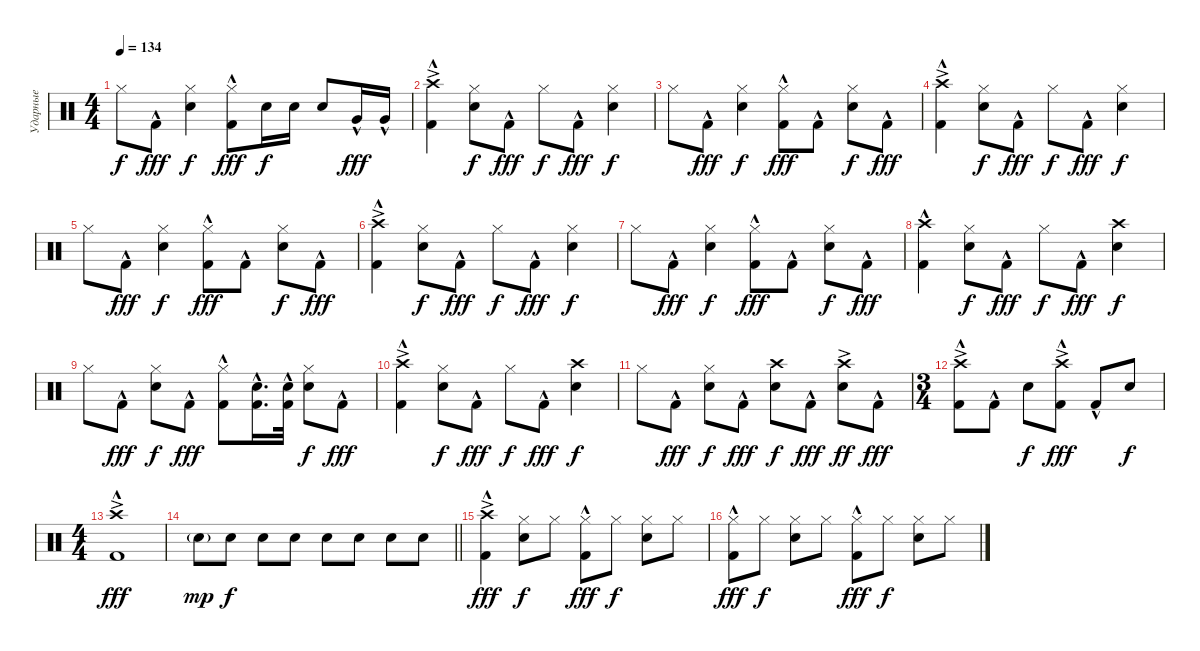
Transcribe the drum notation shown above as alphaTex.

\track ("Ударные" "Ударные") {instrument percussion}
\staff {score}
\articulation defaults
\ts (4 4)
\tempo 134
\clef neutral
\ks c "Hi-Hat (closed)".8{dy f} "Kick (hit) 2"{hac}.8{dy fff}
("Hi-Hat (closed)" "Snare (hit) 2").4{dy f} ("Hi-Hat (closed)" "Kick (hit) 2"{hac}).8{dy fff} "Snare (hit) 2".16{dy f} "Snare (hit) 2".16 "Snare (hit) 2".8 "Very Low Tom (hit)"{hac}.16{dy fff} "Very Low Tom (hit)"{hac}.16 |
("Crash high (hit)"{ac} "Kick (hit) 2"{hac}).4 ("Hi-Hat (closed)" "Snare (hit) 2").8{dy f} "Kick (hit) 2"{hac}.8{dy fff} "Hi-Hat (closed)".8{dy f} "Kick (hit) 2"{hac}.8{dy fff} ("Hi-Hat (closed)" "Snare (hit) 2").4{dy f} |
"Hi-Hat (closed)".8 "Kick (hit) 2"{hac}.8{dy fff} ("Hi-Hat (closed)" "Snare (hit) 2").4{dy f} ("Hi-Hat (closed)" "Kick (hit) 2"{hac}).8{dy fff} "Kick (hit) 2"{hac}.8 ("Hi-Hat (closed)" "Snare (hit) 2").8{dy f} "Kick (hit) 2"{hac}.8{dy fff} |
("Crash high (hit)"{ac} "Kick (hit) 2"{hac}).4 ("Hi-Hat (closed)" "Snare (hit) 2").8{dy f} "Kick (hit) 2"{hac}.8{dy fff} "Hi-Hat (closed)".8{dy f} "Kick (hit) 2"{hac}.8{dy fff} ("Hi-Hat (closed)" "Snare (hit) 2").4{dy f} |
"Hi-Hat (closed)".8 "Kick (hit) 2"{hac}.8{dy fff} ("Hi-Hat (closed)" "Snare (hit) 2").4{dy f} ("Hi-Hat (closed)" "Kick (hit) 2"{hac}).8{dy fff} "Kick (hit) 2"{hac}.8 ("Hi-Hat (closed)" "Snare (hit) 2").8{dy f} "Kick (hit) 2"{hac}.8{dy fff} |
("Crash high (hit)"{ac} "Kick (hit) 2"{hac}).4 ("Hi-Hat (closed)" "Snare (hit) 2").8{dy f} "Kick (hit) 2"{hac}.8{dy fff} "Hi-Hat (closed)".8{dy f} "Kick (hit) 2"{hac}.8{dy fff} ("Hi-Hat (closed)" "Snare (hit) 2").4{dy f} |
"Hi-Hat (closed)".8 "Kick (hit) 2"{hac}.8{dy fff} ("Hi-Hat (closed)" "Snare (hit) 2").4{dy f} ("Hi-Hat (closed)" "Kick (hit) 2"{hac}).8{dy fff} "Kick (hit) 2"{hac}.8 ("Hi-Hat (closed)" "Snare (hit) 2").8{dy f} "Kick (hit) 2"{hac}.8{dy fff} |
("Crash high (hit)" "Kick (hit) 2"{hac}).4 ("Hi-Hat (closed)" "Snare (hit) 2").8{dy f} "Kick (hit) 2"{hac}.8{dy fff} "Hi-Hat (closed)".8{dy f} "Kick (hit) 2"{hac}.8{dy fff} ("Crash high (hit)" "Snare (hit) 2").4{dy f} |
"Hi-Hat (closed)".8 "Kick (hit) 2"{hac}.8{dy fff} ("Hi-Hat (closed)" "Snare (hit) 2").8{dy f} "Kick (hit) 2"{hac}.8{dy fff} ("Hi-Hat (closed)" "Kick (hit) 2"{hac}).8 ("Snare (hit) 2" "Kick (hit) 2"{hac}).16{d} ("Snare (hit) 2" "Kick (hit) 2"{hac}).32 ("Hi-Hat (closed)" "Snare (hit) 2").8{dy f} "Kick (hit) 2"{hac}.8{dy fff} |
("Crash high (hit)"{ac} "Kick (hit) 2"{hac}).4 ("Hi-Hat (closed)" "Snare (hit) 2").8{dy f} "Kick (hit) 2"{hac}.8{dy fff} "Hi-Hat (closed)".8{dy f} "Kick (hit) 2"{hac}.8{dy fff} ("Crash high (hit)" "Snare (hit) 2").4{dy f} |
"Hi-Hat (closed)".8 "Kick (hit) 2"{hac}.8{dy fff} ("Hi-Hat (closed)" "Snare (hit) 2").8{dy f} "Kick (hit) 2"{hac}.8{dy fff} ("Crash high (hit)" "Snare (hit) 2").8{dy f} "Kick (hit) 2"{hac}.8{dy fff} ("Crash high (hit)"{ac} "Snare (hit) 2").8{dy ff} "Kick (hit) 2"{hac}.8{dy fff} |
\ts (3 4)
("Crash high (hit)"{ac} "Kick (hit) 2"{hac}).8 "Kick (hit) 2"{hac}.8 "Snare (hit) 2".8{dy f} ("Crash high (hit)"{ac} "Kick (hit) 2"{hac}).8{dy fff} "Kick (hit) 2"{hac}.8 "Snare (hit) 2".8{dy f} |
\ts (4 4)
("Crash high (hit)"{ac} "Kick (hit) 2"{hac}).1{dy fff} |
\barLineRight lightlight "Snare (hit) 2"{g}.8{dy mp} "Snare (hit) 2".8{dy f} "Snare (hit) 2".8 "Snare (hit) 2".8 "Snare (hit) 2".8 "Snare (hit) 2".8 "Snare (hit) 2".8 "Snare (hit) 2".8
|
("Crash high (hit)"{ac} "Kick (hit) 2"{hac}).4{dy fff} ("Hi-Hat (closed)" "Snare (hit) 2").8{dy f} "Hi-Hat (closed)".8 ("Hi-Hat (closed)" "Kick (hit) 2"{hac}).8{dy fff} "Hi-Hat (closed)".8{dy f} ("Hi-Hat (closed)" "Snare (hit) 2").8 "Hi-Hat (closed)".8 |
("Hi-Hat (closed)" "Kick (hit) 2"{hac}).8{dy fff} "Hi-Hat (closed)".8{dy f} ("Hi-Hat (closed)" "Snare (hit) 2").8 "Hi-Hat (closed)".8 ("Hi-Hat (closed)" "Kick (hit) 2"{hac}).8{dy fff} "Hi-Hat (closed)".8{dy f} ("Hi-Hat (closed)" "Snare (hit) 2").8 "Hi-Hat (closed)".8
